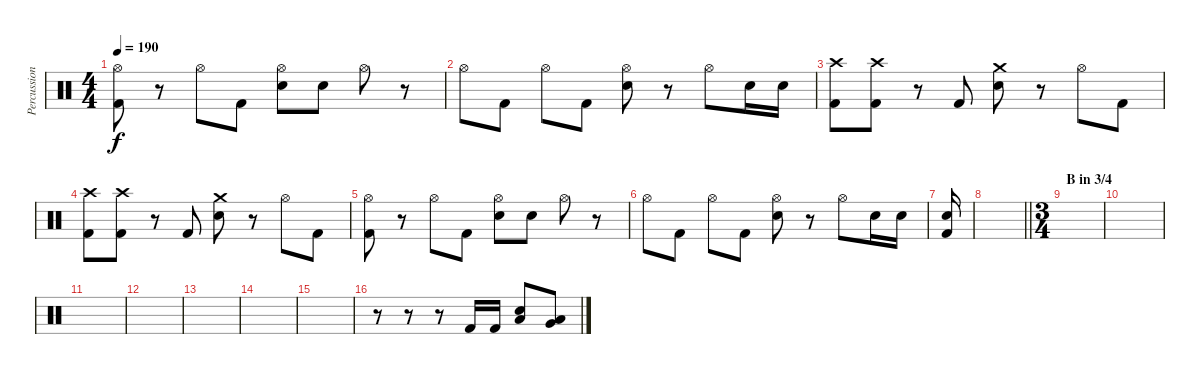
\track ("Percussion" "Percussion") {instrument percussion}
\staff {score}
\articulation defaults
\ts (4 4)
\tempo 190
\clef neutral
\ks c
("Hi-Hat (open)" "Kick (hit) 2").8{dy f} r.8 "Hi-Hat (open)".8 "Kick (hit) 2".8 ("Hi-Hat (open)" "Electric Snare (hit)").8 "Electric Snare (hit)".8 "Hi-Hat (open)".8 r.8 |
"Hi-Hat (open)".8 "Kick (hit) 2".8 "Hi-Hat (open)".8 "Kick (hit) 2".8 ("Hi-Hat (open)" "Electric Snare (hit)").8 r.8 "Hi-Hat (open)".8 "Electric Snare (hit)".16 "Electric Snare (hit)".16 |
("Crash high (hit)" "Kick (hit) 2").8 ("Crash high (hit)" "Kick (hit) 2").8 r.8 "Kick (hit) 2".8 ("Crash medium (hit)" "Electric Snare (hit)").8 r.8 "Hi-Hat (open)".8 "Kick (hit) 2".8 |
("Crash high (hit)" "Kick (hit) 2").8 ("Crash high (hit)" "Kick (hit) 2").8 r.8 "Kick (hit) 2".8 ("Crash medium (hit)" "Electric Snare (hit)").8 r.8 "Hi-Hat (open)".8 "Kick (hit) 2".8 |
("Hi-Hat (open)" "Kick (hit) 2").8 r.8 "Hi-Hat (open)".8 "Kick (hit) 2".8 ("Hi-Hat (open)" "Electric Snare (hit)").8 "Electric Snare (hit)".8 "Hi-Hat (open)".8 r.8 |
"Hi-Hat (open)".8 "Kick (hit) 2".8 "Hi-Hat (open)".8 "Kick (hit) 2".8 ("Hi-Hat (open)" "Electric Snare (hit)").8 r.8 "Hi-Hat (open)".8 "Electric Snare (hit)".16 "Electric Snare (hit)".16 |
("Electric Snare (hit)" "Kick (hit) 2").16 |
\barLineRight lightlight
|
\ts (3 4)
\section ("" "B in 3/4")
|
|
|
|
|
|
|
r.8 r.8 r.8 "Kick (hit) 2".16 "Kick (hit) 2".16 ("Low Tom (hit)" "Electric Snare (hit)").8 ("Very Low Tom (hit)" "Low Floor Tom (hit)").8
